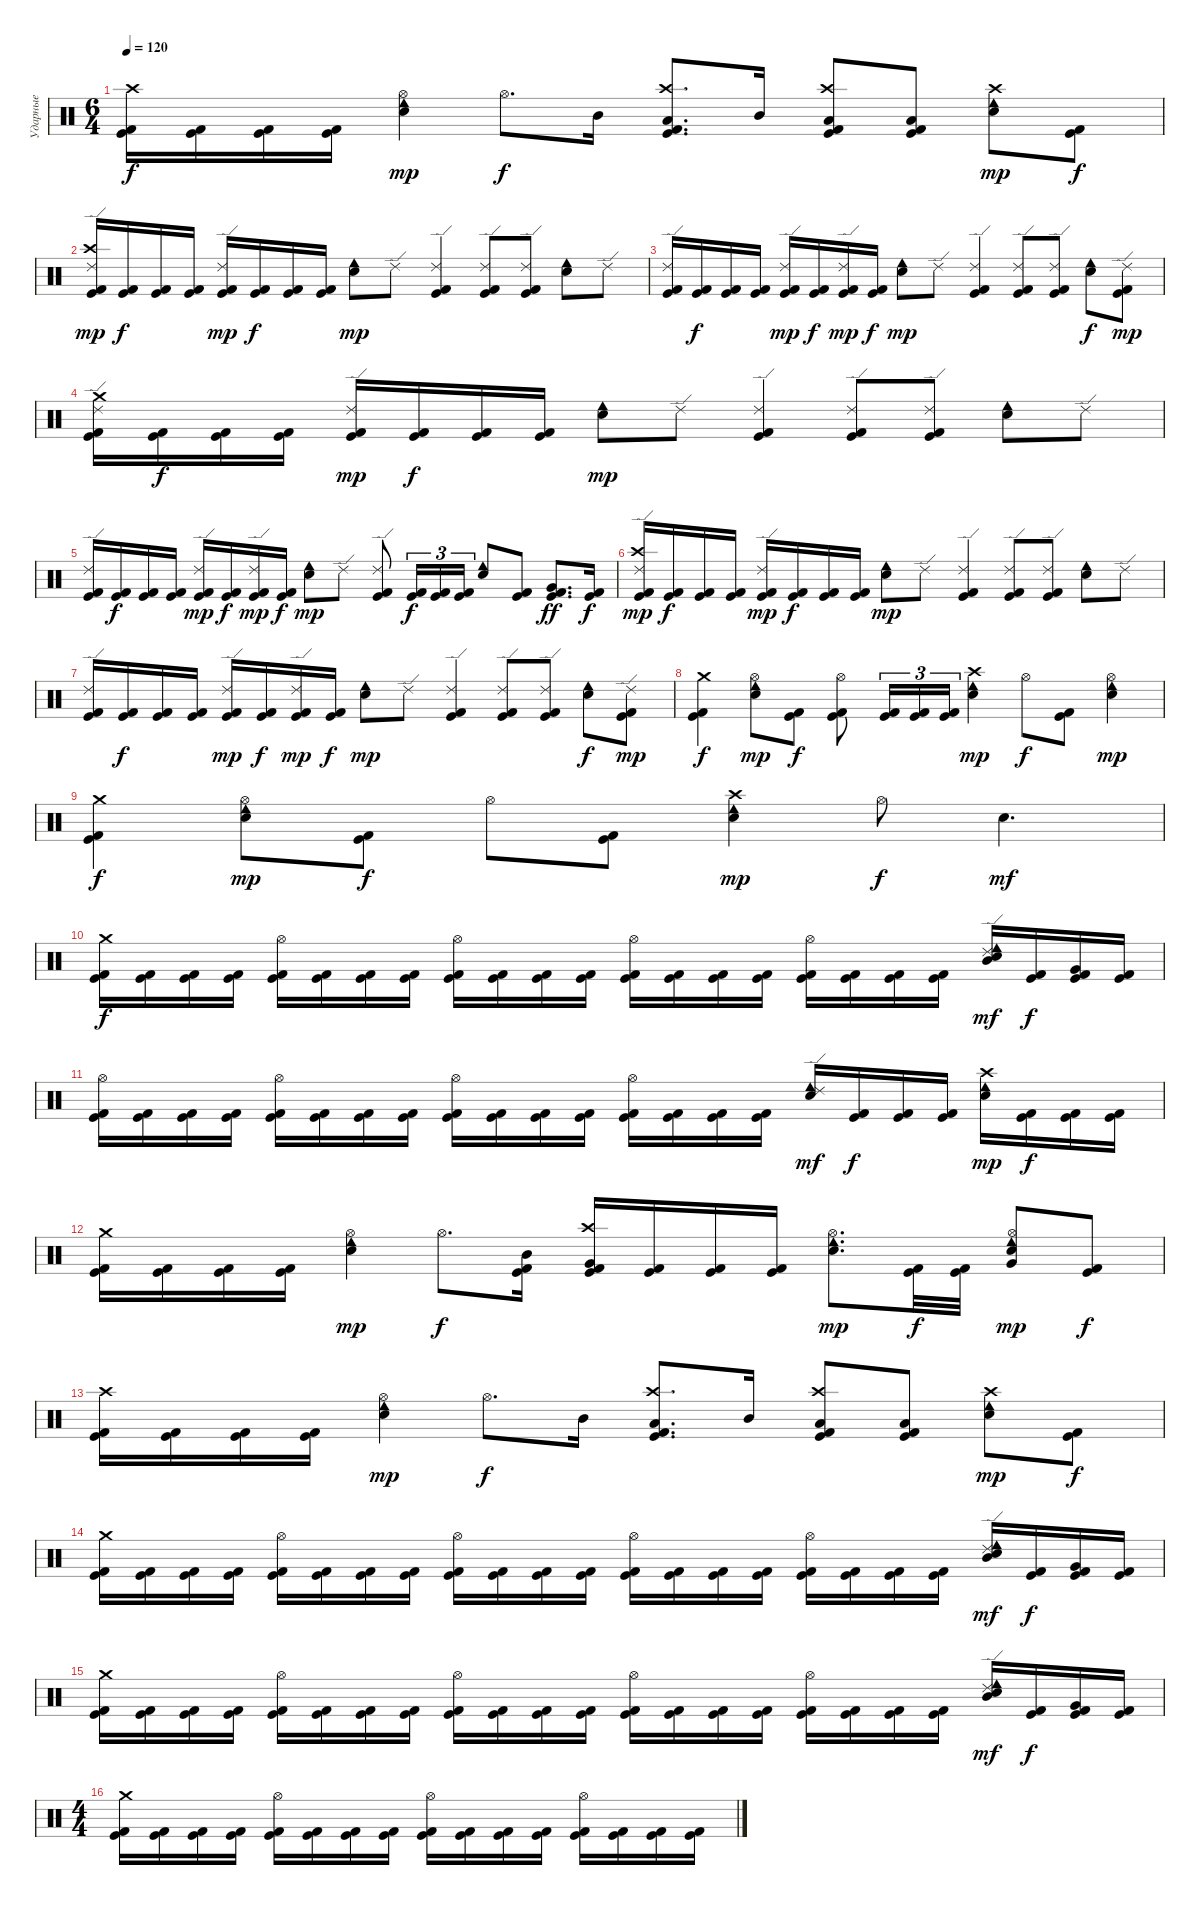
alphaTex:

\track ("Ударные" "Ударные") {instrument percussion}
\staff {score}
\articulation defaults
\ts (6 4)
\tempo 120
\clef neutral
\ks c
("Kick (hit) 2" "Kick (hit)" "Crash high (hit)").16{dy f} ("Kick (hit) 2" "Kick (hit)").16 ("Kick (hit) 2" "Kick (hit)").16 ("Kick (hit) 2" "Kick (hit)").16 ("Cowbell low (hit)" "Electric Snare (hit)" "Hi-Hat (open)").4{dy mp} "Hi-Hat (open)".8{d dy f} "Mid Tom (hit)".16 ("Kick (hit) 2" "Kick (hit)" "Low Tom (hit)" "Crash high (hit)").8{d} "Mid Tom (hit)".16 ("Kick (hit) 2" "Kick (hit)" "Low Tom (hit)" "Crash high (hit)").8 ("Kick (hit) 2" "Kick (hit)" "Low Tom (hit)").8 ("Cowbell low (hit)" "Electric Snare (hit)" "Crash high (hit)").8{dy mp} ("Kick (hit) 2" "Kick (hit)").8{dy f} |
("Kick (hit) 2" "Kick (hit)" "Ride (edge) 2" "Crash high (hit)").16{dy mp} ("Kick (hit) 2" "Kick (hit)").16{dy f} ("Kick (hit) 2" "Kick (hit)").16 ("Kick (hit) 2" "Kick (hit)").16 ("Kick (hit) 2" "Kick (hit)" "Ride (edge) 2").16{dy mp} ("Kick (hit) 2" "Kick (hit)").16{dy f} ("Kick (hit) 2" "Kick (hit)").16 ("Kick (hit) 2" "Kick (hit)").16 ("Cowbell low (hit)" "Electric Snare (hit)").8{dy mp} "Ride (edge) 2".8 ("Kick (hit) 2" "Kick (hit)" "Ride (edge) 2").4 ("Kick (hit) 2" "Kick (hit)" "Ride (edge) 2").8 ("Kick (hit) 2" "Kick (hit)" "Ride (edge) 2").8 ("Cowbell low (hit)" "Electric Snare (hit)").8 "Ride (edge) 2".8 |
("Kick (hit) 2" "Kick (hit)" "Ride (edge) 2").16 ("Kick (hit) 2" "Kick (hit)").16{dy f} ("Kick (hit) 2" "Kick (hit)").16 ("Kick (hit) 2" "Kick (hit)").16 ("Kick (hit) 2" "Kick (hit)" "Ride (edge) 2").16{dy mp} ("Kick (hit) 2" "Kick (hit)").16{dy f} ("Kick (hit) 2" "Kick (hit)" "Ride (edge) 2").16{dy mp} ("Kick (hit) 2" "Kick (hit)").16{dy f} ("Cowbell low (hit)" "Electric Snare (hit)").8{dy mp} "Ride (edge) 2".8 ("Kick (hit) 2" "Kick (hit)" "Ride (edge) 2").4 ("Kick (hit) 2" "Kick (hit)" "Ride (edge) 2").8 ("Kick (hit) 2" "Kick (hit)" "Ride (edge) 2").8 ("Cowbell low (hit)" "Electric Snare (hit)").8{dy f} ("Kick (hit) 2" "Kick (hit)" "Ride (edge) 2").8{dy mp} |
("Kick (hit) 2" "Kick (hit)" "Ride (edge) 2" "Crash medium (hit)").16 ("Kick (hit) 2" "Kick (hit)").16{dy f} ("Kick (hit) 2" "Kick (hit)").16 ("Kick (hit) 2" "Kick (hit)").16 ("Kick (hit) 2" "Kick (hit)" "Ride (edge) 2").16{dy mp} ("Kick (hit) 2" "Kick (hit)").16{dy f} ("Kick (hit) 2" "Kick (hit)").16 ("Kick (hit) 2" "Kick (hit)").16 ("Cowbell low (hit)" "Electric Snare (hit)").8{dy mp} "Ride (edge) 2".8 ("Kick (hit) 2" "Kick (hit)" "Ride (edge) 2").4 ("Kick (hit) 2" "Kick (hit)" "Ride (edge) 2").8 ("Kick (hit) 2" "Kick (hit)" "Ride (edge) 2").8 ("Cowbell low (hit)" "Electric Snare (hit)").8 "Ride (edge) 2".8 |
("Kick (hit) 2" "Kick (hit)" "Ride (edge) 2").16 ("Kick (hit) 2" "Kick (hit)").16{dy f} ("Kick (hit) 2" "Kick (hit)").16 ("Kick (hit) 2" "Kick (hit)").16 ("Kick (hit) 2" "Kick (hit)" "Ride (edge) 2").16{dy mp} ("Kick (hit) 2" "Kick (hit)").16{dy f} ("Kick (hit) 2" "Kick (hit)" "Ride (edge) 2").16{dy mp} ("Kick (hit) 2" "Kick (hit)").16{dy f} ("Cowbell low (hit)" "Electric Snare (hit)").8{dy mp} "Ride (edge) 2".8 ("Kick (hit) 2" "Kick (hit)" "Ride (edge) 2").8 ("Kick (hit) 2" "Kick (hit)").16{tu (3 2) dy f} ("Kick (hit) 2" "Kick (hit)").16{tu (3 2)} ("Kick (hit) 2" "Kick (hit)").16{tu (3 2)} ("Cowbell low (hit)" "Electric Snare (hit)").8 ("Kick (hit) 2" "Kick (hit)").8 ("Kick (hit) 2" "Kick (hit)" "Very Low Tom (hit)").8{d dy ff} ("Kick (hit) 2" "Kick (hit)").16{dy f} |
("Kick (hit) 2" "Kick (hit)" "Ride (edge) 2" "Crash high (hit)").16{dy mp} ("Kick (hit) 2" "Kick (hit)").16{dy f} ("Kick (hit) 2" "Kick (hit)").16 ("Kick (hit) 2" "Kick (hit)").16 ("Kick (hit) 2" "Kick (hit)" "Ride (edge) 2").16{dy mp} ("Kick (hit) 2" "Kick (hit)").16{dy f} ("Kick (hit) 2" "Kick (hit)").16 ("Kick (hit) 2" "Kick (hit)").16 ("Cowbell low (hit)" "Electric Snare (hit)").8{dy mp} "Ride (edge) 2".8 ("Kick (hit) 2" "Kick (hit)" "Ride (edge) 2").4 ("Kick (hit) 2" "Kick (hit)" "Ride (edge) 2").8 ("Kick (hit) 2" "Kick (hit)" "Ride (edge) 2").8 ("Cowbell low (hit)" "Electric Snare (hit)").8 "Ride (edge) 2".8 |
("Kick (hit) 2" "Kick (hit)" "Ride (edge) 2").16 ("Kick (hit) 2" "Kick (hit)").16{dy f} ("Kick (hit) 2" "Kick (hit)").16 ("Kick (hit) 2" "Kick (hit)").16 ("Kick (hit) 2" "Kick (hit)" "Ride (edge) 2").16{dy mp} ("Kick (hit) 2" "Kick (hit)").16{dy f} ("Kick (hit) 2" "Kick (hit)" "Ride (edge) 2").16{dy mp} ("Kick (hit) 2" "Kick (hit)").16{dy f} ("Cowbell low (hit)" "Electric Snare (hit)").8{dy mp} "Ride (edge) 2".8 ("Kick (hit) 2" "Kick (hit)" "Ride (edge) 2").4 ("Kick (hit) 2" "Kick (hit)" "Ride (edge) 2").8 ("Kick (hit) 2" "Kick (hit)" "Ride (edge) 2").8 ("Cowbell low (hit)" "Electric Snare (hit)").8{dy f} ("Kick (hit) 2" "Kick (hit)" "Ride (edge) 2").8{dy mp} |
("Kick (hit) 2" "Kick (hit)" "Crash medium (hit)").4{dy f} ("Cowbell low (hit)" "Electric Snare (hit)" "Hi-Hat (open)").8{dy mp} ("Kick (hit) 2" "Kick (hit)").8{dy f} ("Kick (hit) 2" "Kick (hit)" "Hi-Hat (open)").8 ("Kick (hit) 2" "Kick (hit)").16{tu (3 2)} ("Kick (hit) 2" "Kick (hit)").16{tu (3 2)} ("Kick (hit) 2" "Kick (hit)").16{tu (3 2)} ("Cowbell low (hit)" "Electric Snare (hit)" "Crash high (hit)").4{dy mp} "Hi-Hat (open)".8{dy f} ("Kick (hit) 2" "Kick (hit)").8 ("Cowbell low (hit)" "Electric Snare (hit)" "Hi-Hat (open)").4{dy mp} |
("Kick (hit) 2" "Kick (hit)" "Crash medium (hit)").4{dy f} ("Cowbell low (hit)" "Electric Snare (hit)" "Hi-Hat (open)").8{dy mp} ("Kick (hit) 2" "Kick (hit)").8{dy f} "Hi-Hat (open)".8 ("Kick (hit) 2" "Kick (hit)").8 ("Cowbell low (hit)" "Electric Snare (hit)" "Crash high (hit)").4{dy mp} "Hi-Hat (open)".8{dy f} "Snare (hit)".4{d dy mf} |
("Kick (hit) 2" "Kick (hit)" "Crash medium (hit)").16{dy f} ("Kick (hit) 2" "Kick (hit)").16 ("Kick (hit) 2" "Kick (hit)").16 ("Kick (hit) 2" "Kick (hit)").16 ("Kick (hit) 2" "Kick (hit)" "Hi-Hat (open)").16 ("Kick (hit) 2" "Kick (hit)").16 ("Kick (hit) 2" "Kick (hit)").16 ("Kick (hit) 2" "Kick (hit)").16 ("Kick (hit) 2" "Kick (hit)" "Hi-Hat (open)").16 ("Kick (hit) 2" "Kick (hit)").16 ("Kick (hit) 2" "Kick (hit)").16 ("Kick (hit) 2" "Kick (hit)").16 ("Kick (hit) 2" "Kick (hit)" "Hi-Hat (open)").16 ("Kick (hit) 2" "Kick (hit)").16 ("Kick (hit) 2" "Kick (hit)").16 ("Kick (hit) 2" "Kick (hit)").16 ("Kick (hit) 2" "Kick (hit)" "Hi-Hat (open)").16 ("Kick (hit) 2" "Kick (hit)").16 ("Kick (hit) 2" "Kick (hit)").16 ("Kick (hit) 2" "Kick (hit)").16 ("Cowbell low (hit)" "Electric Snare (hit)" "Mid Tom (hit)" "Ride (edge) 2").16{dy mf} ("Kick (hit) 2" "Kick (hit)").16{dy f} ("Kick (hit) 2" "Kick (hit)" "Very Low Tom (hit)").16 ("Kick (hit) 2" "Kick (hit)").16 |
("Kick (hit) 2" "Kick (hit)" "Hi-Hat (open)").16 ("Kick (hit) 2" "Kick (hit)").16 ("Kick (hit) 2" "Kick (hit)").16 ("Kick (hit) 2" "Kick (hit)").16 ("Kick (hit) 2" "Kick (hit)" "Hi-Hat (open)").16 ("Kick (hit) 2" "Kick (hit)").16 ("Kick (hit) 2" "Kick (hit)").16 ("Kick (hit) 2" "Kick (hit)").16 ("Kick (hit) 2" "Kick (hit)" "Hi-Hat (open)").16 ("Kick (hit) 2" "Kick (hit)").16 ("Kick (hit) 2" "Kick (hit)").16 ("Kick (hit) 2" "Kick (hit)").16 ("Kick (hit) 2" "Kick (hit)" "Hi-Hat (open)").16 ("Kick (hit) 2" "Kick (hit)").16 ("Kick (hit) 2" "Kick (hit)").16 ("Kick (hit) 2" "Kick (hit)").16 ("Cowbell low (hit)" "Electric Snare (hit)" "Ride (edge) 2").16{dy mf} ("Kick (hit) 2" "Kick (hit)").16{dy f} ("Kick (hit) 2" "Kick (hit)").16 ("Kick (hit) 2" "Kick (hit)").16 ("Cowbell low (hit)" "Electric Snare (hit)" "Crash high (hit)").16{dy mp} ("Kick (hit) 2" "Kick (hit)").16{dy f} ("Kick (hit) 2" "Kick (hit)").16 ("Kick (hit) 2" "Kick (hit)").16 |
("Kick (hit) 2" "Kick (hit)" "Crash medium (hit)").16 ("Kick (hit) 2" "Kick (hit)").16 ("Kick (hit) 2" "Kick (hit)").16 ("Kick (hit) 2" "Kick (hit)").16 ("Cowbell low (hit)" "Electric Snare (hit)" "Hi-Hat (open)").4{dy mp} "Hi-Hat (open)".8{d dy f} ("Kick (hit) 2" "Kick (hit)" "Mid Tom (hit)").16 ("Kick (hit) 2" "Kick (hit)" "Very Low Tom (hit)" "Crash high (hit)").16 ("Kick (hit) 2" "Kick (hit)").16 ("Kick (hit) 2" "Kick (hit)").16 ("Kick (hit) 2" "Kick (hit)").16 ("Cowbell low (hit)" "Electric Snare (hit)" "Hi-Hat (open)").8{d dy mp} ("Kick (hit) 2" "Kick (hit)").32{dy f} ("Kick (hit) 2" "Kick (hit)").32 ("Cowbell low (hit)" "Electric Snare (hit)" "Hi-Hat (open)" "Very Low Tom (hit)").8{dy mp} ("Kick (hit) 2" "Kick (hit)").8{dy f} |
("Kick (hit) 2" "Kick (hit)" "Crash high (hit)").16 ("Kick (hit) 2" "Kick (hit)").16 ("Kick (hit) 2" "Kick (hit)").16 ("Kick (hit) 2" "Kick (hit)").16 ("Cowbell low (hit)" "Electric Snare (hit)" "Hi-Hat (open)").4{dy mp} "Hi-Hat (open)".8{d dy f} "Mid Tom (hit)".16 ("Kick (hit) 2" "Kick (hit)" "Low Tom (hit)" "Crash high (hit)").8{d} "Mid Tom (hit)".16 ("Kick (hit) 2" "Kick (hit)" "Low Tom (hit)" "Crash high (hit)").8 ("Kick (hit) 2" "Kick (hit)" "Low Tom (hit)").8 ("Cowbell low (hit)" "Electric Snare (hit)" "Crash high (hit)").8{dy mp} ("Kick (hit) 2" "Kick (hit)").8{dy f} |
("Kick (hit) 2" "Kick (hit)" "Crash medium (hit)").16 ("Kick (hit) 2" "Kick (hit)").16 ("Kick (hit) 2" "Kick (hit)").16 ("Kick (hit) 2" "Kick (hit)").16 ("Kick (hit) 2" "Kick (hit)" "Hi-Hat (open)").16 ("Kick (hit) 2" "Kick (hit)").16 ("Kick (hit) 2" "Kick (hit)").16 ("Kick (hit) 2" "Kick (hit)").16 ("Kick (hit) 2" "Kick (hit)" "Hi-Hat (open)").16 ("Kick (hit) 2" "Kick (hit)").16 ("Kick (hit) 2" "Kick (hit)").16 ("Kick (hit) 2" "Kick (hit)").16 ("Kick (hit) 2" "Kick (hit)" "Hi-Hat (open)").16 ("Kick (hit) 2" "Kick (hit)").16 ("Kick (hit) 2" "Kick (hit)").16 ("Kick (hit) 2" "Kick (hit)").16 ("Kick (hit) 2" "Kick (hit)" "Hi-Hat (open)").16 ("Kick (hit) 2" "Kick (hit)").16 ("Kick (hit) 2" "Kick (hit)").16 ("Kick (hit) 2" "Kick (hit)").16 ("Cowbell low (hit)" "Electric Snare (hit)" "Mid Tom (hit)" "Ride (edge) 2").16{dy mf} ("Kick (hit) 2" "Kick (hit)").16{dy f} ("Kick (hit) 2" "Kick (hit)" "Very Low Tom (hit)").16 ("Kick (hit) 2" "Kick (hit)").16 |
("Kick (hit) 2" "Kick (hit)" "Crash medium (hit)").16 ("Kick (hit) 2" "Kick (hit)").16 ("Kick (hit) 2" "Kick (hit)").16 ("Kick (hit) 2" "Kick (hit)").16 ("Kick (hit) 2" "Kick (hit)" "Hi-Hat (open)").16 ("Kick (hit) 2" "Kick (hit)").16 ("Kick (hit) 2" "Kick (hit)").16 ("Kick (hit) 2" "Kick (hit)").16 ("Kick (hit) 2" "Kick (hit)" "Hi-Hat (open)").16 ("Kick (hit) 2" "Kick (hit)").16 ("Kick (hit) 2" "Kick (hit)").16 ("Kick (hit) 2" "Kick (hit)").16 ("Kick (hit) 2" "Kick (hit)" "Hi-Hat (open)").16 ("Kick (hit) 2" "Kick (hit)").16 ("Kick (hit) 2" "Kick (hit)").16 ("Kick (hit) 2" "Kick (hit)").16 ("Kick (hit) 2" "Kick (hit)" "Hi-Hat (open)").16 ("Kick (hit) 2" "Kick (hit)").16 ("Kick (hit) 2" "Kick (hit)").16 ("Kick (hit) 2" "Kick (hit)").16 ("Cowbell low (hit)" "Electric Snare (hit)" "Mid Tom (hit)" "Ride (edge) 2").16{dy mf} ("Kick (hit) 2" "Kick (hit)").16{dy f} ("Kick (hit) 2" "Kick (hit)" "Very Low Tom (hit)").16 ("Kick (hit) 2" "Kick (hit)").16 |
\ts (4 4)
("Kick (hit) 2" "Kick (hit)" "Crash medium (hit)").16 ("Kick (hit) 2" "Kick (hit)").16 ("Kick (hit) 2" "Kick (hit)").16 ("Kick (hit) 2" "Kick (hit)").16 ("Kick (hit) 2" "Kick (hit)" "Hi-Hat (open)").16 ("Kick (hit) 2" "Kick (hit)").16 ("Kick (hit) 2" "Kick (hit)").16 ("Kick (hit) 2" "Kick (hit)").16 ("Kick (hit) 2" "Kick (hit)" "Hi-Hat (open)").16 ("Kick (hit) 2" "Kick (hit)").16 ("Kick (hit) 2" "Kick (hit)").16 ("Kick (hit) 2" "Kick (hit)").16 ("Kick (hit) 2" "Kick (hit)" "Hi-Hat (open)").16 ("Kick (hit) 2" "Kick (hit)").16 ("Kick (hit) 2" "Kick (hit)").16 ("Kick (hit) 2" "Kick (hit)").16
